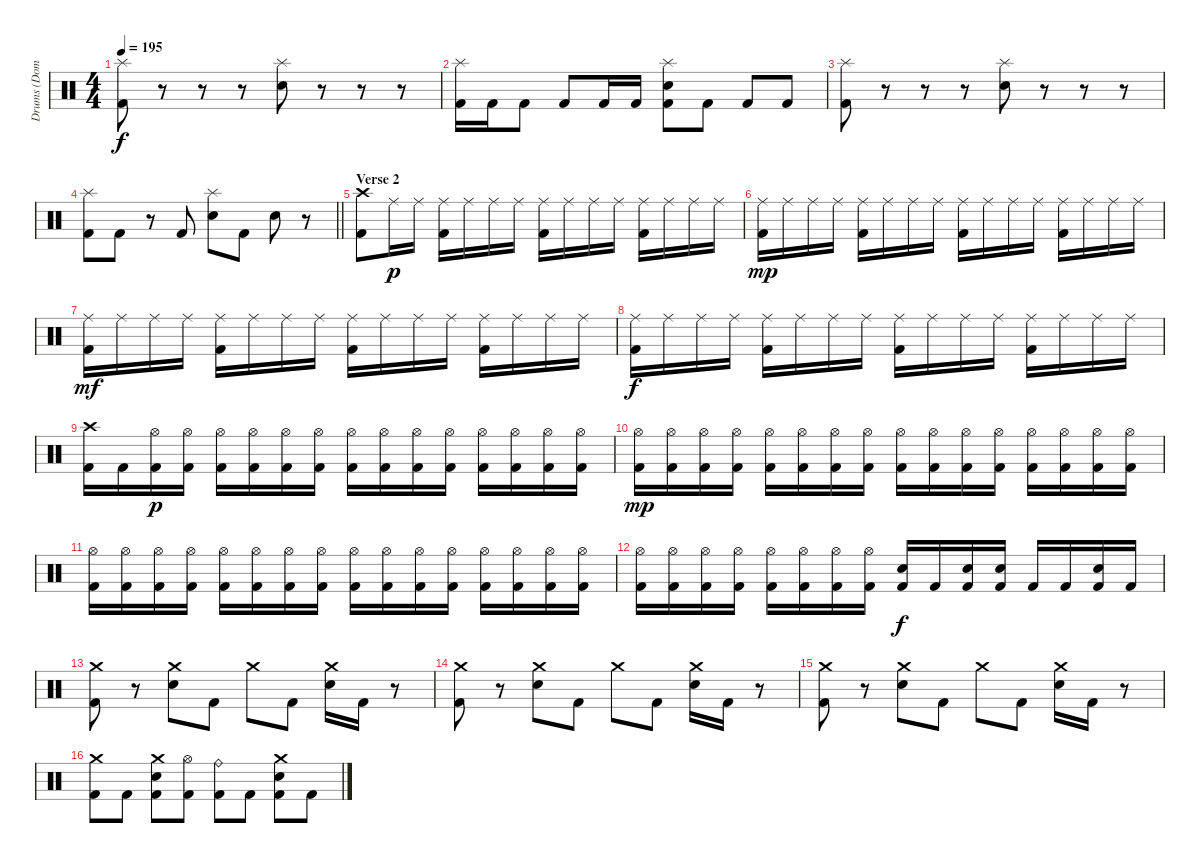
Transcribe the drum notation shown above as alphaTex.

\track ("Drums (Dominik)" "Drums (Dom") {instrument percussion}
\staff {score}
\articulation defaults
\ts (4 4)
\tempo 195
\clef neutral
\ks c
("Splash (hit)" "Kick (hit) 2").8{dy f} r.8 r.8 r.8 ("Splash (hit)" "Electric Snare (hit)").8 r.8 r.8 r.8 |
("Splash (hit)" "Kick (hit) 2").16 "Kick (hit) 2".16 "Kick (hit) 2".8 "Kick (hit) 2".8 "Kick (hit) 2".16 "Kick (hit) 2".16 ("Splash (hit)" "Electric Snare (hit)" "Kick (hit) 2").8 "Kick (hit) 2".8 "Kick (hit) 2".8 "Kick (hit) 2".8 |
("Splash (hit)" "Kick (hit) 2").8 r.8 r.8 r.8 ("Splash (hit)" "Electric Snare (hit)").8 r.8 r.8 r.8 |
\barLineRight lightlight
("Splash (hit)" "Kick (hit) 2").8 "Kick (hit) 2".8 r.8 "Kick (hit) 2".8 ("Splash (hit)" "Electric Snare (hit)").8 "Kick (hit) 2".8 "Electric Snare (hit)".8 r.8 |
\section ("" "Verse 2")
("Crash high (hit)" "Kick (hit) 2").8 "Ride (middle)".16{dy p} "Ride (middle)".16 ("Ride (middle)" "Kick (hit) 2").16 "Ride (middle)".16 "Ride (middle)".16 "Ride (middle)".16 ("Ride (middle)" "Kick (hit) 2").16 "Ride (middle)".16 "Ride (middle)".16 "Ride (middle)".16 ("Ride (middle)" "Kick (hit) 2").16 "Ride (middle)".16 "Ride (middle)".16 "Ride (middle)".16 |
("Ride (middle)" "Kick (hit) 2").16{dy mp} "Ride (middle)".16 "Ride (middle)".16 "Ride (middle)".16 ("Ride (middle)" "Kick (hit) 2").16 "Ride (middle)".16 "Ride (middle)".16 "Ride (middle)".16 ("Ride (middle)" "Kick (hit) 2").16 "Ride (middle)".16 "Ride (middle)".16 "Ride (middle)".16 ("Ride (middle)" "Kick (hit) 2").16 "Ride (middle)".16 "Ride (middle)".16 "Ride (middle)".16 |
("Ride (middle)" "Kick (hit) 2").16{dy mf} "Ride (middle)".16 "Ride (middle)".16 "Ride (middle)".16 ("Ride (middle)" "Kick (hit) 2").16 "Ride (middle)".16 "Ride (middle)".16 "Ride (middle)".16 ("Ride (middle)" "Kick (hit) 2").16 "Ride (middle)".16 "Ride (middle)".16 "Ride (middle)".16 ("Ride (middle)" "Kick (hit) 2").16 "Ride (middle)".16 "Ride (middle)".16 "Ride (middle)".16 |
("Ride (middle)" "Kick (hit) 2").16{dy f} "Ride (middle)".16 "Ride (middle)".16 "Ride (middle)".16 ("Ride (middle)" "Kick (hit) 2").16 "Ride (middle)".16 "Ride (middle)".16 "Ride (middle)".16 ("Ride (middle)" "Kick (hit) 2").16 "Ride (middle)".16 "Ride (middle)".16 "Ride (middle)".16 ("Ride (middle)" "Kick (hit) 2").16 "Ride (middle)".16 "Ride (middle)".16 "Ride (middle)".16 |
("Crash high (hit)" "Kick (hit) 2").16 "Kick (hit) 2".16 ("Hi-Hat (open)" "Kick (hit) 2").16{dy p} ("Hi-Hat (open)" "Kick (hit) 2").16 ("Hi-Hat (open)" "Kick (hit) 2").16 ("Hi-Hat (open)" "Kick (hit) 2").16 ("Hi-Hat (open)" "Kick (hit) 2").16 ("Hi-Hat (open)" "Kick (hit) 2").16 ("Hi-Hat (open)" "Kick (hit) 2").16 ("Hi-Hat (open)" "Kick (hit) 2").16 ("Hi-Hat (open)" "Kick (hit) 2").16 ("Hi-Hat (open)" "Kick (hit) 2").16 ("Hi-Hat (open)" "Kick (hit) 2").16 ("Hi-Hat (open)" "Kick (hit) 2").16 ("Hi-Hat (open)" "Kick (hit) 2").16 ("Hi-Hat (open)" "Kick (hit) 2").16 |
("Hi-Hat (open)" "Kick (hit) 2").16{dy mp} ("Hi-Hat (open)" "Kick (hit) 2").16 ("Hi-Hat (open)" "Kick (hit) 2").16 ("Hi-Hat (open)" "Kick (hit) 2").16 ("Hi-Hat (open)" "Kick (hit) 2").16 ("Hi-Hat (open)" "Kick (hit) 2").16 ("Hi-Hat (open)" "Kick (hit) 2").16 ("Hi-Hat (open)" "Kick (hit) 2").16 ("Hi-Hat (open)" "Kick (hit) 2").16 ("Hi-Hat (open)" "Kick (hit) 2").16 ("Hi-Hat (open)" "Kick (hit) 2").16 ("Hi-Hat (open)" "Kick (hit) 2").16 ("Hi-Hat (open)" "Kick (hit) 2").16 ("Hi-Hat (open)" "Kick (hit) 2").16 ("Hi-Hat (open)" "Kick (hit) 2").16 ("Hi-Hat (open)" "Kick (hit) 2").16 |
("Hi-Hat (open)" "Kick (hit) 2").16 ("Hi-Hat (open)" "Kick (hit) 2").16 ("Hi-Hat (open)" "Kick (hit) 2").16 ("Hi-Hat (open)" "Kick (hit) 2").16 ("Hi-Hat (open)" "Kick (hit) 2").16 ("Hi-Hat (open)" "Kick (hit) 2").16 ("Hi-Hat (open)" "Kick (hit) 2").16 ("Hi-Hat (open)" "Kick (hit) 2").16 ("Hi-Hat (open)" "Kick (hit) 2").16 ("Hi-Hat (open)" "Kick (hit) 2").16 ("Hi-Hat (open)" "Kick (hit) 2").16 ("Hi-Hat (open)" "Kick (hit) 2").16 ("Hi-Hat (open)" "Kick (hit) 2").16 ("Hi-Hat (open)" "Kick (hit) 2").16 ("Hi-Hat (open)" "Kick (hit) 2").16 ("Hi-Hat (open)" "Kick (hit) 2").16 |
("Hi-Hat (open)" "Kick (hit) 2").16 ("Hi-Hat (open)" "Kick (hit) 2").16 ("Hi-Hat (open)" "Kick (hit) 2").16 ("Hi-Hat (open)" "Kick (hit) 2").16 ("Hi-Hat (open)" "Kick (hit) 2").16 ("Hi-Hat (open)" "Kick (hit) 2").16 ("Hi-Hat (open)" "Kick (hit) 2").16 ("Hi-Hat (open)" "Kick (hit) 2").16 ("Electric Snare (hit)" "Kick (hit) 2").16{dy f} "Kick (hit) 2".16 ("Electric Snare (hit)" "Kick (hit) 2").16 ("Electric Snare (hit)" "Kick (hit) 2").16 "Kick (hit) 2".16 "Kick (hit) 2".16 ("Electric Snare (hit)" "Kick (hit) 2").16 "Kick (hit) 2".16 |
("Crash medium (hit)" "Kick (hit) 2").8 r.8 ("Crash medium (hit)" "Electric Snare (hit)").8 "Kick (hit) 2".8 "Crash medium (hit)".8 "Kick (hit) 2".8 ("Crash medium (hit)" "Electric Snare (hit)").16 "Kick (hit) 2".16 r.8 |
("Crash medium (hit)" "Kick (hit) 2").8 r.8 ("Crash medium (hit)" "Electric Snare (hit)").8 "Kick (hit) 2".8 "Crash medium (hit)".8 "Kick (hit) 2".8 ("Crash medium (hit)" "Electric Snare (hit)").16 "Kick (hit) 2".16 r.8 |
("Crash medium (hit)" "Kick (hit) 2").8 r.8 ("Crash medium (hit)" "Electric Snare (hit)").8 "Kick (hit) 2".8 "Crash medium (hit)".8 "Kick (hit) 2".8 ("Crash medium (hit)" "Electric Snare (hit)").16 "Kick (hit) 2".16 r.8 |
("Crash medium (hit)" "Kick (hit) 2").8 "Kick (hit) 2".8 ("Crash medium (hit)" "Electric Snare (hit)" "Kick (hit) 2").8 ("Hi-Hat (open)" "Kick (hit) 2").8 ("Ride (bell)" "Kick (hit) 2").8 "Kick (hit) 2".8 ("Crash medium (hit)" "Electric Snare (hit)" "Kick (hit) 2").8 "Kick (hit) 2".8
